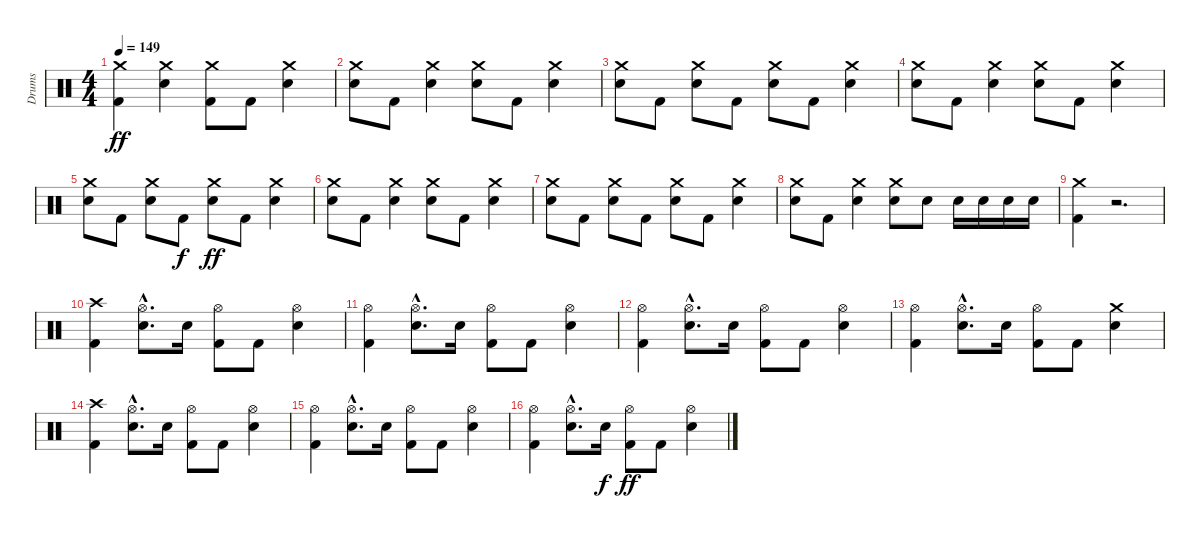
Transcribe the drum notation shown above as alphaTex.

\track ("Drums" "Drums") {instrument percussion}
\staff {score}
\articulation defaults
\ts (4 4)
\tempo 149
\clef neutral
\ks c
("Kick (hit) 2" "Crash medium (hit)").4{dy ff} ("Crash medium (hit)" "Electric Snare (hit)").4 ("Crash medium (hit)" "Kick (hit) 2").8 "Kick (hit) 2".8 ("Crash medium (hit)" "Electric Snare (hit)").4 |
("Crash medium (hit)" "Electric Snare (hit)").8 "Kick (hit) 2".8 ("Crash medium (hit)" "Electric Snare (hit)").4 ("Crash medium (hit)" "Electric Snare (hit)").8 "Kick (hit) 2".8 ("Crash medium (hit)" "Electric Snare (hit)").4 |
("Crash medium (hit)" "Electric Snare (hit)").8 "Kick (hit) 2".8 ("Crash medium (hit)" "Electric Snare (hit)").8 "Kick (hit) 2".8 ("Crash medium (hit)" "Electric Snare (hit)").8 "Kick (hit) 2".8 ("Crash medium (hit)" "Electric Snare (hit)").4 |
("Crash medium (hit)" "Electric Snare (hit)").8 "Kick (hit) 2".8 ("Crash medium (hit)" "Electric Snare (hit)").4 ("Crash medium (hit)" "Electric Snare (hit)").8 "Kick (hit) 2".8 ("Crash medium (hit)" "Electric Snare (hit)").4 |
("Crash medium (hit)" "Electric Snare (hit)").8 "Kick (hit) 2".8 ("Crash medium (hit)" "Electric Snare (hit)").8 "Kick (hit) 2".8{dy f} ("Crash medium (hit)" "Electric Snare (hit)").8{dy ff} "Kick (hit) 2".8 ("Crash medium (hit)" "Electric Snare (hit)").4 |
("Crash medium (hit)" "Electric Snare (hit)").8 "Kick (hit) 2".8 ("Crash medium (hit)" "Electric Snare (hit)").4 ("Crash medium (hit)" "Electric Snare (hit)").8 "Kick (hit) 2".8 ("Crash medium (hit)" "Electric Snare (hit)").4 |
("Crash medium (hit)" "Electric Snare (hit)").8 "Kick (hit) 2".8 ("Crash medium (hit)" "Electric Snare (hit)").8 "Kick (hit) 2".8 ("Crash medium (hit)" "Electric Snare (hit)").8 "Kick (hit) 2".8 ("Crash medium (hit)" "Electric Snare (hit)").4 |
("Electric Snare (hit)" "Crash medium (hit)").8 "Kick (hit) 2".8 ("Electric Snare (hit)" "Crash medium (hit)").4 ("Electric Snare (hit)" "Crash medium (hit)").8 "Electric Snare (hit)".8 "Electric Snare (hit)".16 "Electric Snare (hit)".16 "Electric Snare (hit)".16 "Electric Snare (hit)".16 |
("Crash medium (hit)" "Kick (hit) 2").4 r.2{d} |
("Crash high (hit)" "Kick (hit) 2").4 ("Hi-Hat (open)" "Electric Snare (hit)"{hac}).8{d} "Electric Snare (hit)".16 ("Hi-Hat (open)" "Kick (hit) 2").8 "Kick (hit) 2".8 ("Hi-Hat (open)" "Electric Snare (hit)").4 |
("Kick (hit) 2" "Hi-Hat (open)").4 ("Hi-Hat (open)" "Electric Snare (hit)"{hac}).8{d} "Electric Snare (hit)".16 ("Hi-Hat (open)" "Kick (hit) 2").8 "Kick (hit) 2".8 ("Hi-Hat (open)" "Electric Snare (hit)").4 |
("Kick (hit) 2" "Hi-Hat (open)").4 ("Hi-Hat (open)" "Electric Snare (hit)"{hac}).8{d} "Electric Snare (hit)".16 ("Hi-Hat (open)" "Kick (hit) 2").8 "Kick (hit) 2".8 ("Hi-Hat (open)" "Electric Snare (hit)").4 |
("Kick (hit) 2" "Hi-Hat (open)").4 ("Hi-Hat (open)" "Electric Snare (hit)"{hac}).8{d} "Electric Snare (hit)".16 ("Hi-Hat (open)" "Kick (hit) 2").8 "Kick (hit) 2".8 ("Electric Snare (hit)" "Crash medium (hit)").4 |
("Crash high (hit)" "Kick (hit) 2").4 ("Hi-Hat (open)" "Electric Snare (hit)"{hac}).8{d} "Electric Snare (hit)".16 ("Hi-Hat (open)" "Kick (hit) 2").8 "Kick (hit) 2".8 ("Hi-Hat (open)" "Electric Snare (hit)").4 |
("Kick (hit) 2" "Hi-Hat (open)").4 ("Hi-Hat (open)" "Electric Snare (hit)"{hac}).8{d} "Electric Snare (hit)".16 ("Hi-Hat (open)" "Kick (hit) 2").8 "Kick (hit) 2".8 ("Hi-Hat (open)" "Electric Snare (hit)").4 |
("Kick (hit) 2" "Hi-Hat (open)").4 ("Hi-Hat (open)" "Electric Snare (hit)"{hac}).8{d} "Electric Snare (hit)".16{dy f} ("Hi-Hat (open)" "Kick (hit) 2").8{dy ff} "Kick (hit) 2".8 ("Hi-Hat (open)" "Electric Snare (hit)").4
